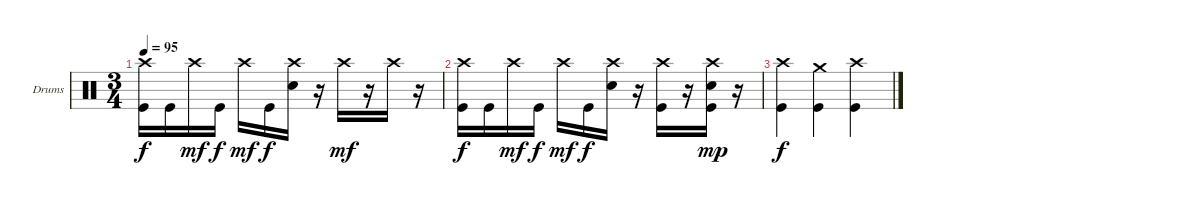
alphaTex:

\defaultSystemsLayout 4
\bracketExtendMode groupsimilarinstruments
\firstSystemTrackNameOrientation horizontal
\otherSystemsTrackNameOrientation horizontal
\track ("Drumkit" "Drums") {instrument percussion}
\staff {score}
\articulation defaults
\ts (3 4)
\tempo 95
\clef neutral
\ks c
("Kick (hit)" "Crash high (hit)").16{dy f} "Kick (hit)".16 "Crash high (hit)".16{dy mf} "Kick (hit)".16{dy f} "Crash high (hit)".16{dy mf} "Kick (hit)".16{dy f} ("Snare (hit) 2" "Crash high (hit)").16 r.16 "Crash high (hit)".16{dy mf} r.16 "Crash high (hit)".16 r.16 |
("Kick (hit)" "Crash high (hit)").16{dy f} "Kick (hit)".16 "Crash high (hit)".16{dy mf} "Kick (hit)".16{dy f} "Crash high (hit)".16{dy mf} "Kick (hit)".16{dy f} ("Snare (hit) 2" "Crash high (hit)").16 r.16 ("Kick (hit)" "Crash high (hit)").16 r.16 ("Kick (hit)" "Snare (hit) 2" "Crash high (hit)").16{dy mp} r.16 |
("Kick (hit)" "Crash high (hit)").4{dy f} ("Kick (hit)" "Crash medium (hit)").4 ("Kick (hit)" "Crash high (hit)").4
